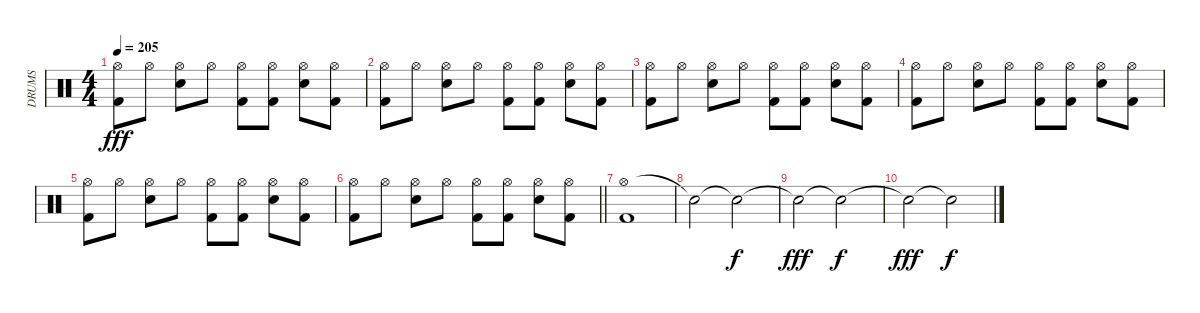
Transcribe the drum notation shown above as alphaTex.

\track ("DRUMS" "DRUMS") {instrument percussion}
\staff {score}
\articulation defaults
\ts (4 4)
\tempo 205
\clef neutral
\ks c
("Hi-Hat (open)" "Kick (hit) 2").8{dy fff} "Hi-Hat (open)".8 ("Hi-Hat (open)" "Electric Snare (hit)").8 "Hi-Hat (open)".8 ("Hi-Hat (open)" "Kick (hit) 2").8 ("Hi-Hat (open)" "Kick (hit) 2").8 ("Hi-Hat (open)" "Electric Snare (hit)").8 ("Hi-Hat (open)" "Kick (hit) 2").8 |
("Hi-Hat (open)" "Kick (hit) 2").8 "Hi-Hat (open)".8 ("Hi-Hat (open)" "Electric Snare (hit)").8 "Hi-Hat (open)".8 ("Hi-Hat (open)" "Kick (hit) 2").8 ("Hi-Hat (open)" "Kick (hit) 2").8 ("Hi-Hat (open)" "Electric Snare (hit)").8 ("Hi-Hat (open)" "Kick (hit) 2").8 |
("Hi-Hat (open)" "Kick (hit) 2").8 "Hi-Hat (open)".8 ("Hi-Hat (open)" "Electric Snare (hit)").8 "Hi-Hat (open)".8 ("Hi-Hat (open)" "Kick (hit) 2").8 ("Hi-Hat (open)" "Kick (hit) 2").8 ("Hi-Hat (open)" "Electric Snare (hit)").8 ("Hi-Hat (open)" "Kick (hit) 2").8 |
("Hi-Hat (open)" "Kick (hit) 2").8 "Hi-Hat (open)".8 ("Hi-Hat (open)" "Electric Snare (hit)").8 "Hi-Hat (open)".8 ("Hi-Hat (open)" "Kick (hit) 2").8 ("Hi-Hat (open)" "Kick (hit) 2").8 ("Hi-Hat (open)" "Electric Snare (hit)").8 ("Hi-Hat (open)" "Kick (hit) 2").8 |
("Hi-Hat (open)" "Kick (hit) 2").8 "Hi-Hat (open)".8 ("Hi-Hat (open)" "Electric Snare (hit)").8 "Hi-Hat (open)".8 ("Hi-Hat (open)" "Kick (hit) 2").8 ("Hi-Hat (open)" "Kick (hit) 2").8 ("Hi-Hat (open)" "Electric Snare (hit)").8 ("Hi-Hat (open)" "Kick (hit) 2").8 |
\barLineRight lightlight
("Hi-Hat (open)" "Kick (hit) 2").8 "Hi-Hat (open)".8 ("Hi-Hat (open)" "Electric Snare (hit)").8 "Hi-Hat (open)".8 ("Hi-Hat (open)" "Kick (hit) 2").8 ("Hi-Hat (open)" "Kick (hit) 2").8 ("Hi-Hat (open)" "Electric Snare (hit)").8 ("Hi-Hat (open)" "Kick (hit) 2").8 |
("Hi-Hat (open)" "Kick (hit) 2").1 |
"Snare (hit)"{t}.2 "Snare (hit)"{t}.2{dy f} |
"Snare (hit)"{t}.2{dy fff} "Snare (hit)"{t}.2{dy f} |
"Snare (hit)"{t}.2{dy fff} "Snare (hit)"{t}.2{dy f}
